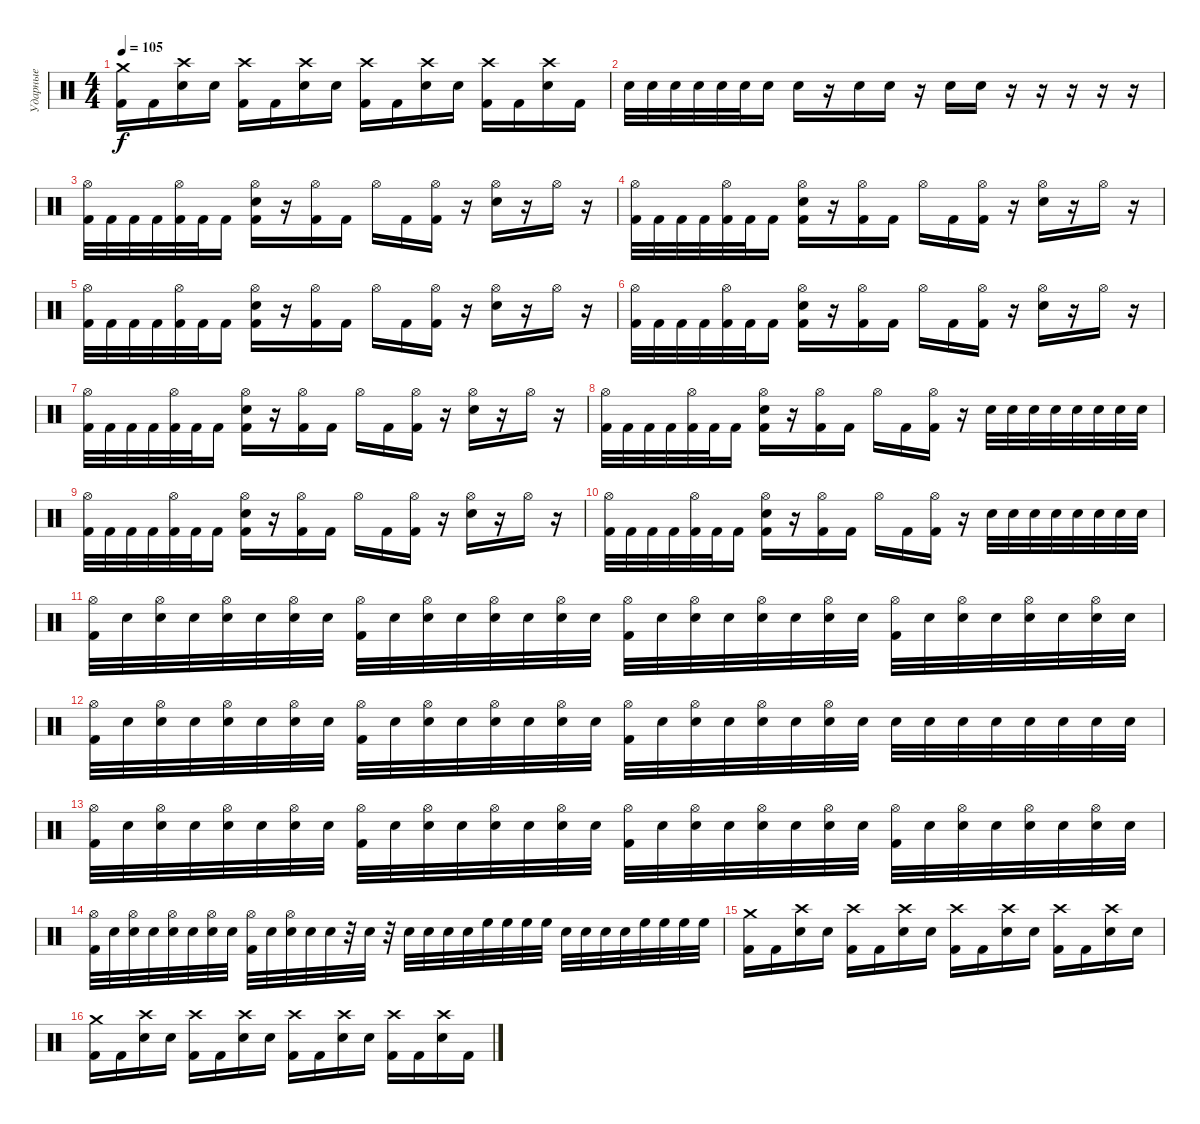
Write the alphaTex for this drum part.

\track ("Ударные" "Ударные") {instrument percussion}
\staff {score}
\articulation defaults
\ts (4 4)
\tempo 105
\clef neutral
\ks c
("Crash medium (hit)" "Kick (hit) 2").16{dy f} "Kick (hit) 2".16 ("Crash high (hit)" "Electric Snare (hit)").16 "Snare (hit)".16 ("Crash high (hit)" "Kick (hit) 2").16 "Kick (hit) 2".16 ("Crash high (hit)" "Electric Snare (hit)").16 "Snare (hit)".16 ("Crash high (hit)" "Kick (hit) 2").16 "Kick (hit) 2".16 ("Crash high (hit)" "Electric Snare (hit)").16 "Snare (hit)".16 ("Crash high (hit)" "Kick (hit) 2").16 "Kick (hit) 2".16 ("Crash high (hit)" "Electric Snare (hit)").16 "Kick (hit) 2".16 |
"Electric Snare (hit)".32 "Electric Snare (hit)".32 "Electric Snare (hit)".32 "Electric Snare (hit)".32 "Electric Snare (hit)".32 "Electric Snare (hit)".32 "Electric Snare (hit)".16 "Electric Snare (hit)".16 r.16 "Electric Snare (hit)".16 "Electric Snare (hit)".16 r.16 "Electric Snare (hit)".16 "Electric Snare (hit)".16 r.16 r.16 r.16 r.16 r.16 |
("Hi-Hat (open)" "Kick (hit) 2").32 "Kick (hit) 2".32 "Kick (hit) 2".32 "Kick (hit) 2".32 ("Hi-Hat (open)" "Kick (hit) 2").32 "Kick (hit) 2".32 "Kick (hit) 2".16 ("Hi-Hat (open)" "Electric Snare (hit)" "Kick (hit) 2").16 r.16 ("Hi-Hat (open)" "Kick (hit) 2").16 "Kick (hit) 2".16 "Hi-Hat (open)".16 "Kick (hit) 2".16 ("Hi-Hat (open)" "Kick (hit) 2").16 r.16 ("Hi-Hat (open)" "Electric Snare (hit)").16 r.16 "Hi-Hat (open)".16 r.16 |
("Hi-Hat (open)" "Kick (hit) 2").32 "Kick (hit) 2".32 "Kick (hit) 2".32 "Kick (hit) 2".32 ("Hi-Hat (open)" "Kick (hit) 2").32 "Kick (hit) 2".32 "Kick (hit) 2".16 ("Hi-Hat (open)" "Electric Snare (hit)" "Kick (hit) 2").16 r.16 ("Hi-Hat (open)" "Kick (hit) 2").16 "Kick (hit) 2".16 "Hi-Hat (open)".16 "Kick (hit) 2".16 ("Hi-Hat (open)" "Kick (hit) 2").16 r.16 ("Hi-Hat (open)" "Electric Snare (hit)").16 r.16 "Hi-Hat (open)".16 r.16 |
("Hi-Hat (open)" "Kick (hit) 2").32 "Kick (hit) 2".32 "Kick (hit) 2".32 "Kick (hit) 2".32 ("Hi-Hat (open)" "Kick (hit) 2").32 "Kick (hit) 2".32 "Kick (hit) 2".16 ("Hi-Hat (open)" "Electric Snare (hit)" "Kick (hit) 2").16 r.16 ("Hi-Hat (open)" "Kick (hit) 2").16 "Kick (hit) 2".16 "Hi-Hat (open)".16 "Kick (hit) 2".16 ("Hi-Hat (open)" "Kick (hit) 2").16 r.16 ("Hi-Hat (open)" "Electric Snare (hit)").16 r.16 "Hi-Hat (open)".16 r.16 |
("Hi-Hat (open)" "Kick (hit) 2").32 "Kick (hit) 2".32 "Kick (hit) 2".32 "Kick (hit) 2".32 ("Hi-Hat (open)" "Kick (hit) 2").32 "Kick (hit) 2".32 "Kick (hit) 2".16 ("Hi-Hat (open)" "Electric Snare (hit)" "Kick (hit) 2").16 r.16 ("Hi-Hat (open)" "Kick (hit) 2").16 "Kick (hit) 2".16 "Hi-Hat (open)".16 "Kick (hit) 2".16 ("Hi-Hat (open)" "Kick (hit) 2").16 r.16 ("Hi-Hat (open)" "Electric Snare (hit)").16 r.16 "Hi-Hat (open)".16 r.16 |
("Hi-Hat (open)" "Kick (hit) 2").32 "Kick (hit) 2".32 "Kick (hit) 2".32 "Kick (hit) 2".32 ("Hi-Hat (open)" "Kick (hit) 2").32 "Kick (hit) 2".32 "Kick (hit) 2".16 ("Hi-Hat (open)" "Electric Snare (hit)" "Kick (hit) 2").16 r.16 ("Hi-Hat (open)" "Kick (hit) 2").16 "Kick (hit) 2".16 "Hi-Hat (open)".16 "Kick (hit) 2".16 ("Hi-Hat (open)" "Kick (hit) 2").16 r.16 ("Hi-Hat (open)" "Electric Snare (hit)").16 r.16 "Hi-Hat (open)".16 r.16 |
("Hi-Hat (open)" "Kick (hit) 2").32 "Kick (hit) 2".32 "Kick (hit) 2".32 "Kick (hit) 2".32 ("Hi-Hat (open)" "Kick (hit) 2").32 "Kick (hit) 2".32 "Kick (hit) 2".16 ("Hi-Hat (open)" "Electric Snare (hit)" "Kick (hit) 2").16 r.16 ("Hi-Hat (open)" "Kick (hit) 2").16 "Kick (hit) 2".16 "Hi-Hat (open)".16 "Kick (hit) 2".16 ("Hi-Hat (open)" "Kick (hit) 2").16 r.16 "Electric Snare (hit)".32 "Electric Snare (hit)".32 "Electric Snare (hit)".32 "Electric Snare (hit)".32 "Electric Snare (hit)".32 "Electric Snare (hit)".32 "Electric Snare (hit)".32 "Electric Snare (hit)".32 |
("Hi-Hat (open)" "Kick (hit) 2").32 "Kick (hit) 2".32 "Kick (hit) 2".32 "Kick (hit) 2".32 ("Hi-Hat (open)" "Kick (hit) 2").32 "Kick (hit) 2".32 "Kick (hit) 2".16 ("Hi-Hat (open)" "Electric Snare (hit)" "Kick (hit) 2").16 r.16 ("Hi-Hat (open)" "Kick (hit) 2").16 "Kick (hit) 2".16 "Hi-Hat (open)".16 "Kick (hit) 2".16 ("Hi-Hat (open)" "Kick (hit) 2").16 r.16 ("Hi-Hat (open)" "Electric Snare (hit)").16 r.16 "Hi-Hat (open)".16 r.16 |
("Hi-Hat (open)" "Kick (hit) 2").32 "Kick (hit) 2".32 "Kick (hit) 2".32 "Kick (hit) 2".32 ("Hi-Hat (open)" "Kick (hit) 2").32 "Kick (hit) 2".32 "Kick (hit) 2".16 ("Hi-Hat (open)" "Electric Snare (hit)" "Kick (hit) 2").16 r.16 ("Hi-Hat (open)" "Kick (hit) 2").16 "Kick (hit) 2".16 "Hi-Hat (open)".16 "Kick (hit) 2".16 ("Hi-Hat (open)" "Kick (hit) 2").16 r.16 "Electric Snare (hit)".32 "Electric Snare (hit)".32 "Electric Snare (hit)".32 "Electric Snare (hit)".32 "Electric Snare (hit)".32 "Electric Snare (hit)".32 "Electric Snare (hit)".32 "Electric Snare (hit)".32 |
("Hi-Hat (open)" "Kick (hit) 2").32 "Snare (hit)".32 ("Hi-Hat (open)" "Snare (hit)").32 "Snare (hit)".32 ("Hi-Hat (open)" "Electric Snare (hit)").32 "Snare (hit)".32 ("Hi-Hat (open)" "Snare (hit)").32 "Snare (hit)".32 ("Hi-Hat (open)" "Kick (hit) 2").32 "Snare (hit)".32 ("Hi-Hat (open)" "Snare (hit)").32 "Snare (hit)".32 ("Hi-Hat (open)" "Electric Snare (hit)").32 "Snare (hit)".32 ("Hi-Hat (open)" "Snare (hit)").32 "Snare (hit)".32 ("Hi-Hat (open)" "Kick (hit) 2").32 "Snare (hit)".32 ("Hi-Hat (open)" "Snare (hit)").32 "Snare (hit)".32 ("Hi-Hat (open)" "Electric Snare (hit)").32 "Snare (hit)".32 ("Hi-Hat (open)" "Snare (hit)").32 "Snare (hit)".32 ("Hi-Hat (open)" "Kick (hit) 2").32 "Snare (hit)".32 ("Hi-Hat (open)" "Snare (hit)").32 "Snare (hit)".32 ("Hi-Hat (open)" "Electric Snare (hit)").32 "Snare (hit)".32 ("Hi-Hat (open)" "Snare (hit)").32 "Snare (hit)".32 |
("Hi-Hat (open)" "Kick (hit) 2").32 "Snare (hit)".32 ("Hi-Hat (open)" "Snare (hit)").32 "Snare (hit)".32 ("Hi-Hat (open)" "Electric Snare (hit)").32 "Snare (hit)".32 ("Hi-Hat (open)" "Snare (hit)").32 "Snare (hit)".32 ("Hi-Hat (open)" "Kick (hit) 2").32 "Snare (hit)".32 ("Hi-Hat (open)" "Snare (hit)").32 "Snare (hit)".32 ("Hi-Hat (open)" "Electric Snare (hit)").32 "Snare (hit)".32 ("Hi-Hat (open)" "Snare (hit)").32 "Snare (hit)".32 ("Hi-Hat (open)" "Kick (hit) 2").32 "Snare (hit)".32 ("Hi-Hat (open)" "Snare (hit)").32 "Snare (hit)".32 ("Hi-Hat (open)" "Electric Snare (hit)").32 "Snare (hit)".32 ("Hi-Hat (open)" "Snare (hit)").32 "Snare (hit)".32 "Electric Snare (hit)".32 "Electric Snare (hit)".32 "Electric Snare (hit)".32 "Electric Snare (hit)".32 "Electric Snare (hit)".32 "Electric Snare (hit)".32 "Electric Snare (hit)".32 "Electric Snare (hit)".32 |
("Hi-Hat (open)" "Kick (hit) 2").32 "Snare (hit)".32 ("Hi-Hat (open)" "Snare (hit)").32 "Snare (hit)".32 ("Hi-Hat (open)" "Electric Snare (hit)").32 "Snare (hit)".32 ("Hi-Hat (open)" "Snare (hit)").32 "Snare (hit)".32 ("Hi-Hat (open)" "Kick (hit) 2").32 "Snare (hit)".32 ("Hi-Hat (open)" "Snare (hit)").32 "Snare (hit)".32 ("Hi-Hat (open)" "Electric Snare (hit)").32 "Snare (hit)".32 ("Hi-Hat (open)" "Snare (hit)").32 "Snare (hit)".32 ("Hi-Hat (open)" "Kick (hit) 2").32 "Snare (hit)".32 ("Hi-Hat (open)" "Snare (hit)").32 "Snare (hit)".32 ("Hi-Hat (open)" "Electric Snare (hit)").32 "Snare (hit)".32 ("Hi-Hat (open)" "Snare (hit)").32 "Snare (hit)".32 ("Hi-Hat (open)" "Kick (hit) 2").32 "Snare (hit)".32 ("Hi-Hat (open)" "Snare (hit)").32 "Snare (hit)".32 ("Hi-Hat (open)" "Electric Snare (hit)").32 "Snare (hit)".32 ("Hi-Hat (open)" "Snare (hit)").32 "Snare (hit)".32 |
("Hi-Hat (open)" "Kick (hit) 2").32 "Snare (hit)".32 ("Hi-Hat (open)" "Snare (hit)").32 "Snare (hit)".32 ("Hi-Hat (open)" "Electric Snare (hit)").32 "Snare (hit)".32 ("Hi-Hat (open)" "Snare (hit)").32 "Snare (hit)".32 ("Hi-Hat (open)" "Kick (hit) 2").32 "Snare (hit)".32 ("Hi-Hat (open)" "Snare (hit)").32 "Snare (hit)".32 "Electric Snare (hit)".32 r.32 "Electric Snare (hit)".32 r.32 "Electric Snare (hit)".32 "Electric Snare (hit)".32 "Electric Snare (hit)".32 "Electric Snare (hit)".32 "High Floor Tom (hit)".32 "High Floor Tom (hit)".32 "High Floor Tom (hit)".32 "High Floor Tom (hit)".32 "Electric Snare (hit)".32 "Electric Snare (hit)".32 "Electric Snare (hit)".32 "Electric Snare (hit)".32 "High Floor Tom (hit)".32 "High Floor Tom (hit)".32 "High Floor Tom (hit)".32 "High Floor Tom (hit)".32 |
("Crash medium (hit)" "Kick (hit) 2").16 "Kick (hit) 2".16 ("Crash high (hit)" "Electric Snare (hit)").16 "Snare (hit)".16 ("Crash high (hit)" "Kick (hit) 2").16 "Kick (hit) 2".16 ("Crash high (hit)" "Electric Snare (hit)").16 "Snare (hit)".16 ("Crash high (hit)" "Kick (hit) 2").16 "Kick (hit) 2".16 ("Crash high (hit)" "Electric Snare (hit)").16 "Snare (hit)".16 ("Crash high (hit)" "Kick (hit) 2").16 "Kick (hit) 2".16 ("Crash high (hit)" "Electric Snare (hit)").16 "Snare (hit)".16 |
("Crash medium (hit)" "Kick (hit) 2").16 "Kick (hit) 2".16 ("Crash high (hit)" "Electric Snare (hit)").16 "Snare (hit)".16 ("Crash high (hit)" "Kick (hit) 2").16 "Kick (hit) 2".16 ("Crash high (hit)" "Electric Snare (hit)").16 "Snare (hit)".16 ("Crash high (hit)" "Kick (hit) 2").16 "Kick (hit) 2".16 ("Crash high (hit)" "Electric Snare (hit)").16 "Snare (hit)".16 ("Crash high (hit)" "Kick (hit) 2").16 "Kick (hit) 2".16 ("Crash high (hit)" "Electric Snare (hit)").16 "Kick (hit) 2".16
